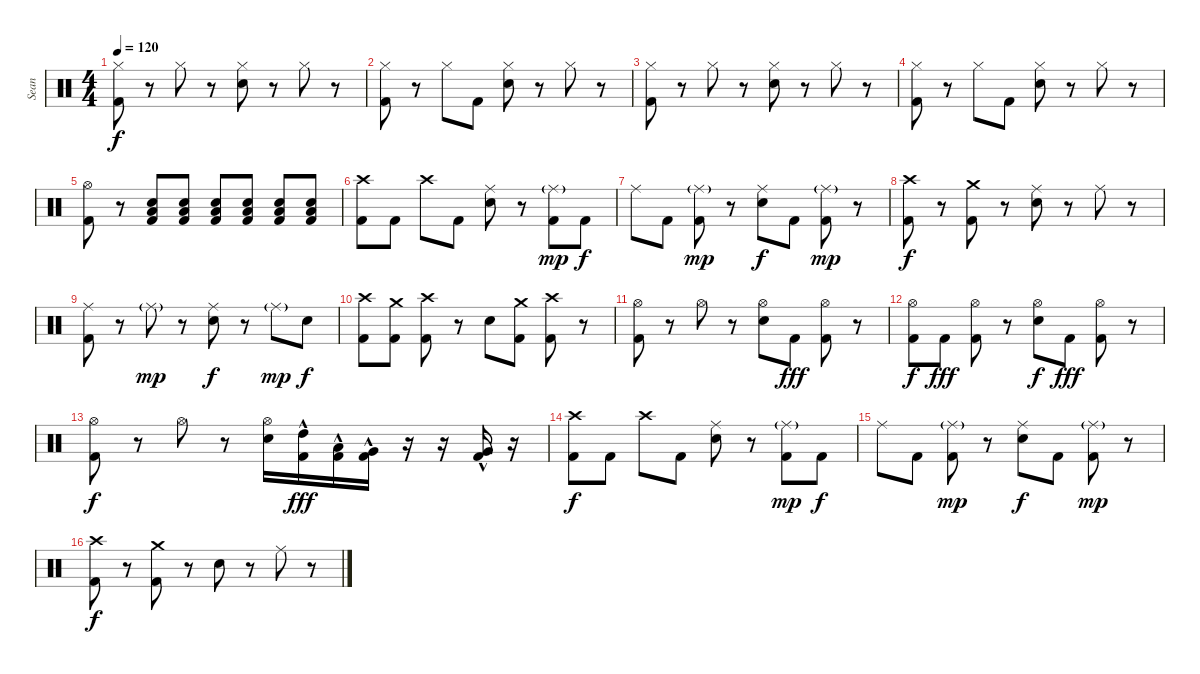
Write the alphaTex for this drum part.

\track ("Sean" "Sean") {instrument percussion}
\staff {score}
\articulation defaults
\ts (4 4)
\tempo 120
\clef neutral
\ks c
("Hi-Hat (closed)" "Kick (hit) 2").8{dy f} r.8 "Hi-Hat (closed)".8 r.8 ("Hi-Hat (closed)" "Snare (hit) 2").8 r.8 "Hi-Hat (closed)".8 r.8 |
("Hi-Hat (closed)" "Kick (hit) 2").8 r.8 "Hi-Hat (closed)".8 "Kick (hit) 2".8 ("Hi-Hat (closed)" "Snare (hit) 2").8 r.8 "Hi-Hat (closed)".8 r.8 |
("Hi-Hat (closed)" "Kick (hit) 2").8 r.8 "Hi-Hat (closed)".8 r.8 ("Hi-Hat (closed)" "Snare (hit) 2").8 r.8 "Hi-Hat (closed)".8 r.8 |
("Hi-Hat (closed)" "Kick (hit) 2").8 r.8 "Hi-Hat (closed)".8 "Kick (hit) 2".8 ("Hi-Hat (closed)" "Snare (hit) 2").8 r.8 "Hi-Hat (closed)".8 r.8 |
("Hi-Hat (open)" "Kick (hit) 2").8 r.8 ("Low Floor Tom (hit)" "Snare (hit) 2" "Kick (hit) 2").8 ("Low Floor Tom (hit)" "Snare (hit) 2" "Kick (hit) 2").8 ("Low Floor Tom (hit)" "Snare (hit) 2" "Kick (hit) 2").8 ("Low Floor Tom (hit)" "Snare (hit) 2" "Kick (hit) 2").8 ("Low Floor Tom (hit)" "Snare (hit) 2" "Kick (hit) 2").8 ("Low Floor Tom (hit)" "Snare (hit) 2" "Kick (hit) 2").8 |
("Crash high (hit)" "Kick (hit) 2").8 "Kick (hit) 2".8 "Crash high (hit)".8 "Kick (hit) 2".8 ("Ride (middle)" "Snare (hit) 2").8 r.8 ("Ride (middle)"{g} "Kick (hit) 2").8{dy mp} "Kick (hit) 2".8{dy f} |
"Ride (middle)".8 "Kick (hit) 2".8 ("Ride (middle)"{g} "Kick (hit) 2").8{dy mp} r.8 ("Ride (middle)" "Snare (hit) 2").8{dy f} "Kick (hit) 2".8 ("Ride (middle)"{g} "Kick (hit) 2").8{dy mp} r.8 |
("Crash high (hit)" "Kick (hit) 2").8{dy f} r.8 ("Crash medium (hit)" "Kick (hit) 2").8 r.8 ("Ride (middle)" "Snare (hit) 2").8 r.8 "Ride (middle)".8 r.8 |
("Ride (middle)" "Kick (hit) 2").8 r.8 "Ride (middle)"{g}.8{dy mp} r.8 ("Ride (middle)" "Snare (hit) 2").8{dy f} r.8 "Ride (middle)"{g}.8{dy mp} "Snare (hit) 2".8{dy f} |
("Crash high (hit)" "Kick (hit) 2").8 ("Crash medium (hit)" "Kick (hit) 2").8 ("Crash high (hit)" "Kick (hit) 2").8 r.8 "Snare (hit) 2".8 ("Crash medium (hit)" "Kick (hit) 2").8 ("Crash high (hit)" "Kick (hit) 2").8 r.8 |
("Hi-Hat (open)" "Kick (hit) 2").8 r.8 "Hi-Hat (open)".8 r.8 ("Hi-Hat (open)" "Snare (hit) 2").8 "Kick (hit) 2".8{dy fff} ("Hi-Hat (open)" "Kick (hit) 2").8 r.8 |
("Hi-Hat (open)" "Kick (hit) 2").8{dy f} "Kick (hit) 2".8{dy fff} ("Hi-Hat (open)" "Kick (hit) 2").8 r.8 ("Hi-Hat (open)" "Snare (hit) 2").8{dy f} "Kick (hit) 2".8{dy fff} ("Hi-Hat (open)" "Kick (hit) 2").8 r.8 |
("Hi-Hat (open)" "Kick (hit) 2").8{dy f} r.8 "Hi-Hat (open)".8 r.8 ("Hi-Hat (open)" "Snare (hit) 2").16 ("High Tom (hit)" "Kick (hit) 2"{hac}).16{dy fff} ("Low Tom (hit)" "Kick (hit) 2"{hac}).16 ("Very Low Tom (hit)" "Kick (hit) 2"{hac}).16 r.16 r.16 ("Very Low Tom (hit)" "Kick (hit) 2"{hac}).16 r.16 |
("Crash high (hit)" "Kick (hit) 2").8{dy f} "Kick (hit) 2".8 "Crash high (hit)".8 "Kick (hit) 2".8 ("Ride (middle)" "Snare (hit) 2").8 r.8 ("Ride (middle)"{g} "Kick (hit) 2").8{dy mp} "Kick (hit) 2".8{dy f} |
"Ride (middle)".8 "Kick (hit) 2".8 ("Ride (middle)"{g} "Kick (hit) 2").8{dy mp} r.8 ("Ride (middle)" "Snare (hit) 2").8{dy f} "Kick (hit) 2".8 ("Ride (middle)"{g} "Kick (hit) 2").8{dy mp} r.8 |
("Crash high (hit)" "Kick (hit) 2").8{dy f} r.8 ("Crash medium (hit)" "Kick (hit) 2").8 r.8 "Snare (hit) 2".8 r.8 "Ride (middle)".8 r.8
